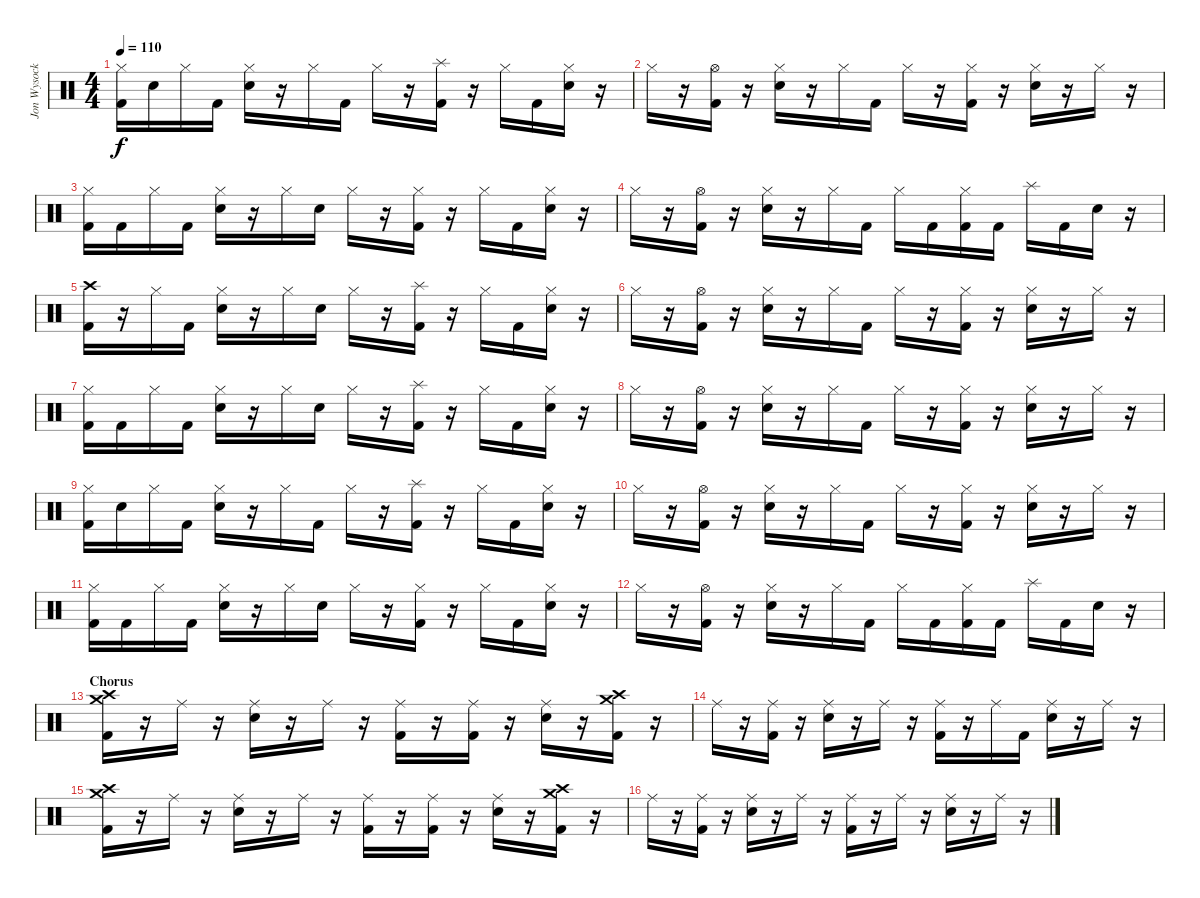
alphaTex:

\track ("Jon Wysocki" "Jon Wysock") {instrument percussion}
\staff {score}
\articulation defaults
\ts (4 4)
\tempo 110
\clef neutral
\ks c
("Hi-Hat (closed)" "Kick (hit) 2").16{dy f} "Snare (hit) 2".16 "Hi-Hat (closed)".16 "Kick (hit) 2".16 ("Hi-Hat (closed)" "Snare (hit) 2").16 r.16 "Hi-Hat (closed)".16 "Kick (hit) 2".16 "Hi-Hat (closed)".16 r.16 ("Splash (hit)" "Kick (hit) 2").16 r.16 "Hi-Hat (closed)".16 "Kick (hit) 2".16 ("Hi-Hat (closed)" "Snare (hit) 2").16 r.16 |
"Hi-Hat (closed)".16 r.16 ("Hi-Hat (open)" "Kick (hit) 2").16 r.16 ("Hi-Hat (closed)" "Snare (hit) 2").16 r.16 "Hi-Hat (closed)".16 "Kick (hit) 2".16 "Hi-Hat (closed)".16 r.16 ("Hi-Hat (closed)" "Kick (hit) 2").16 r.16 ("Hi-Hat (closed)" "Snare (hit) 2").16 r.16 "Hi-Hat (closed)".16 r.16 |
("Hi-Hat (closed)" "Kick (hit) 2").16 "Kick (hit) 2".16 "Hi-Hat (closed)".16 "Kick (hit) 2".16 ("Hi-Hat (closed)" "Snare (hit) 2").16 r.16 "Hi-Hat (closed)".16 "Snare (hit) 2".16 "Hi-Hat (closed)".16 r.16 ("Hi-Hat (closed)" "Kick (hit) 2").16 r.16 "Hi-Hat (closed)".16 "Kick (hit) 2".16 ("Hi-Hat (closed)" "Snare (hit) 2").16 r.16 |
"Hi-Hat (closed)".16 r.16 ("Hi-Hat (open)" "Kick (hit) 2").16 r.16 ("Hi-Hat (closed)" "Snare (hit) 2").16 r.16 "Hi-Hat (closed)".16 "Kick (hit) 2".16 "Hi-Hat (closed)".16 "Kick (hit) 2".16 ("Hi-Hat (closed)" "Kick (hit) 2").16 "Kick (hit) 2".16 "Splash (hit)".16 "Kick (hit) 2".16 "Snare (hit) 2".16 r.16 |
("Crash high (hit)" "Kick (hit) 2").16 r.16 "Hi-Hat (closed)".16 "Kick (hit) 2".16 ("Hi-Hat (closed)" "Snare (hit) 2").16 r.16 "Hi-Hat (closed)".16 "Snare (hit) 2".16 "Hi-Hat (closed)".16 r.16 ("Splash (hit)" "Kick (hit) 2").16 r.16 "Hi-Hat (closed)".16 "Kick (hit) 2".16 ("Hi-Hat (closed)" "Snare (hit) 2").16 r.16 |
"Hi-Hat (closed)".16 r.16 ("Hi-Hat (open)" "Kick (hit) 2").16 r.16 ("Hi-Hat (closed)" "Snare (hit) 2").16 r.16 "Hi-Hat (closed)".16 "Kick (hit) 2".16 "Hi-Hat (closed)".16 r.16 ("Hi-Hat (closed)" "Kick (hit) 2").16 r.16 ("Hi-Hat (closed)" "Snare (hit) 2").16 r.16 "Hi-Hat (closed)".16 r.16 |
("Hi-Hat (closed)" "Kick (hit) 2").16 "Kick (hit) 2".16 "Hi-Hat (closed)".16 "Kick (hit) 2".16 ("Hi-Hat (closed)" "Snare (hit) 2").16 r.16 "Hi-Hat (closed)".16 "Snare (hit) 2".16 "Hi-Hat (closed)".16 r.16 ("Splash (hit)" "Kick (hit) 2").16 r.16 "Hi-Hat (closed)".16 "Kick (hit) 2".16 ("Hi-Hat (closed)" "Snare (hit) 2").16 r.16 |
"Hi-Hat (closed)".16 r.16 ("Hi-Hat (open)" "Kick (hit) 2").16 r.16 ("Hi-Hat (closed)" "Snare (hit) 2").16 r.16 "Hi-Hat (closed)".16 "Kick (hit) 2".16 "Hi-Hat (closed)".16 r.16 ("Hi-Hat (closed)" "Kick (hit) 2").16 r.16 ("Hi-Hat (closed)" "Snare (hit) 2").16 r.16 "Hi-Hat (closed)".16 r.16 |
("Hi-Hat (closed)" "Kick (hit) 2").16 "Snare (hit) 2".16 "Hi-Hat (closed)".16 "Kick (hit) 2".16 ("Hi-Hat (closed)" "Snare (hit) 2").16 r.16 "Hi-Hat (closed)".16 "Kick (hit) 2".16 "Hi-Hat (closed)".16 r.16 ("Splash (hit)" "Kick (hit) 2").16 r.16 "Hi-Hat (closed)".16 "Kick (hit) 2".16 ("Hi-Hat (closed)" "Snare (hit) 2").16 r.16 |
"Hi-Hat (closed)".16 r.16 ("Hi-Hat (open)" "Kick (hit) 2").16 r.16 ("Hi-Hat (closed)" "Snare (hit) 2").16 r.16 "Hi-Hat (closed)".16 "Kick (hit) 2".16 "Hi-Hat (closed)".16 r.16 ("Hi-Hat (closed)" "Kick (hit) 2").16 r.16 ("Hi-Hat (closed)" "Snare (hit) 2").16 r.16 "Hi-Hat (closed)".16 r.16 |
("Hi-Hat (closed)" "Kick (hit) 2").16 "Kick (hit) 2".16 "Hi-Hat (closed)".16 "Kick (hit) 2".16 ("Hi-Hat (closed)" "Snare (hit) 2").16 r.16 "Hi-Hat (closed)".16 "Snare (hit) 2".16 "Hi-Hat (closed)".16 r.16 ("Hi-Hat (closed)" "Kick (hit) 2").16 r.16 "Hi-Hat (closed)".16 "Kick (hit) 2".16 ("Hi-Hat (closed)" "Snare (hit) 2").16 r.16 |
"Hi-Hat (closed)".16 r.16 ("Hi-Hat (open)" "Kick (hit) 2").16 r.16 ("Hi-Hat (closed)" "Snare (hit) 2").16 r.16 "Hi-Hat (closed)".16 "Kick (hit) 2".16 "Hi-Hat (closed)".16 "Kick (hit) 2".16 ("Hi-Hat (closed)" "Kick (hit) 2").16 "Kick (hit) 2".16 "Splash (hit)".16 "Kick (hit) 2".16 "Snare (hit) 2".16 r.16 |
\section ("" "Chorus")
("Crash medium (hit)" "Crash high (hit)" "Kick (hit) 2").16 r.16 "Ride (middle)".16 r.16 ("Ride (middle)" "Snare (hit) 2").16 r.16 "Ride (middle)".16 r.16 ("Ride (middle)" "Kick (hit) 2").16 r.16 ("Ride (middle)" "Kick (hit) 2").16 r.16 ("Ride (middle)" "Snare (hit) 2").16 r.16 ("Crash medium (hit)" "Crash high (hit)" "Kick (hit) 2").16 r.16 |
"Ride (middle)".16 r.16 ("Ride (middle)" "Kick (hit) 2").16 r.16 ("Ride (middle)" "Snare (hit) 2").16 r.16 "Ride (middle)".16 r.16 ("Ride (middle)" "Kick (hit) 2").16 r.16 "Ride (middle)".16 "Kick (hit) 2".16 ("Ride (middle)" "Snare (hit) 2").16 r.16 "Ride (middle)".16 r.16 |
("Crash medium (hit)" "Crash high (hit)" "Kick (hit) 2").16 r.16 "Ride (middle)".16 r.16 ("Ride (middle)" "Snare (hit) 2").16 r.16 "Ride (middle)".16 r.16 ("Ride (middle)" "Kick (hit) 2").16 r.16 ("Ride (middle)" "Kick (hit) 2").16 r.16 ("Ride (middle)" "Snare (hit) 2").16 r.16 ("Crash medium (hit)" "Crash high (hit)" "Kick (hit) 2").16 r.16 |
"Ride (middle)".16 r.16 ("Ride (middle)" "Kick (hit) 2").16 r.16 ("Ride (middle)" "Snare (hit) 2").16 r.16 "Ride (middle)".16 r.16 ("Ride (middle)" "Kick (hit) 2").16 r.16 "Ride (middle)".16 r.16 ("Ride (middle)" "Snare (hit) 2").16 r.16 "Ride (middle)".16 r.16
